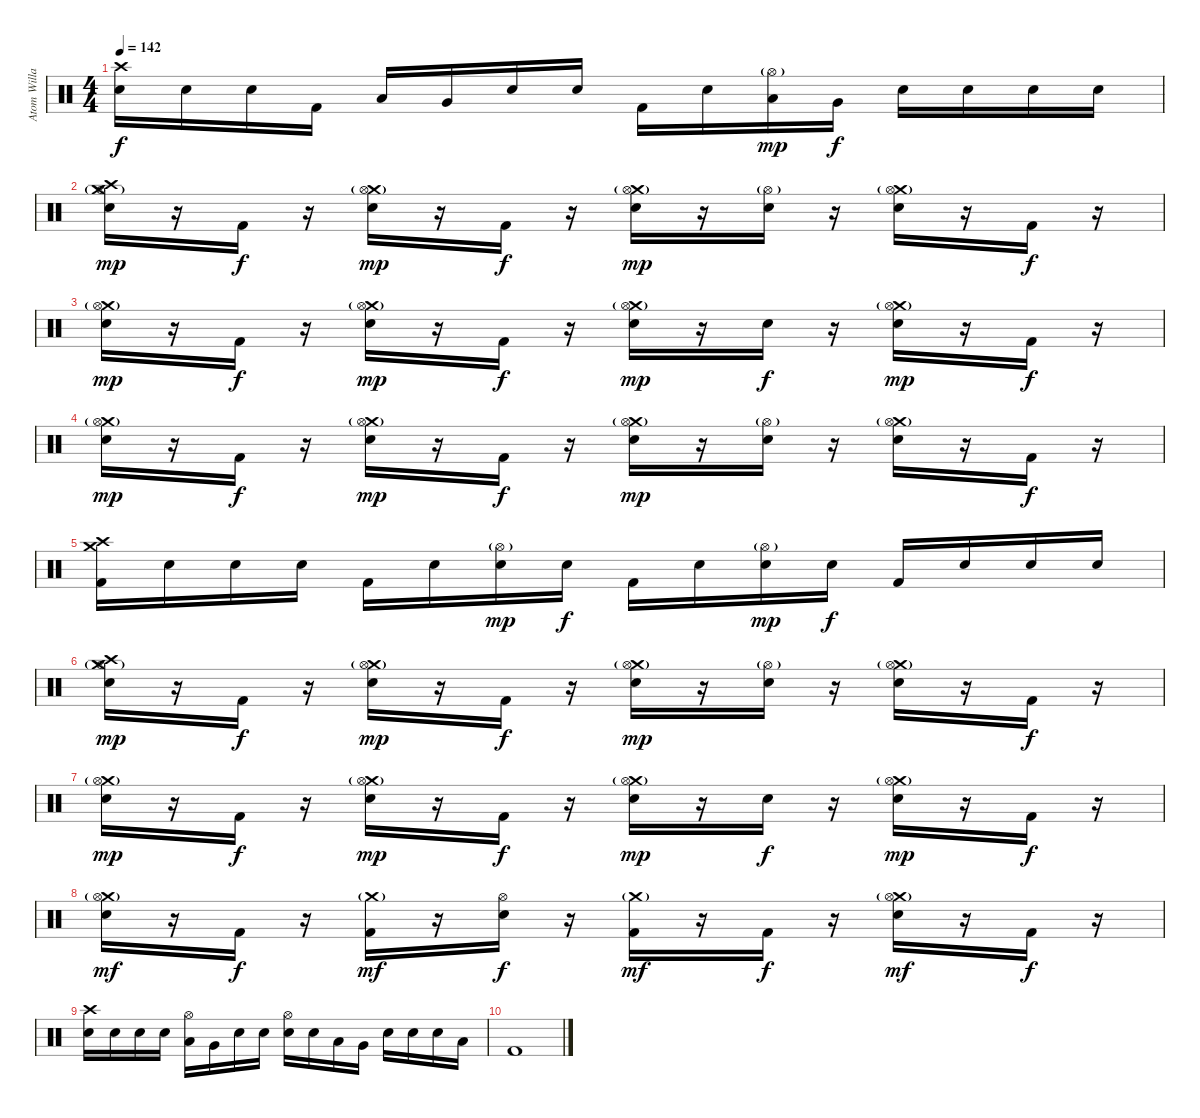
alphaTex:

\track ("Atom Willard" "Atom Willa") {instrument percussion}
\staff {score}
\articulation defaults
\ts (4 4)
\tempo 142
\clef neutral
\ks c
("Crash high (hit)" "Electric Snare (hit)").16{dy f} "Electric Snare (hit)".16 "Electric Snare (hit)".16 "Kick (hit) 2".16 "Low Tom (hit)".16 "Very Low Tom (hit)".16 "Electric Snare (hit)".16 "Electric Snare (hit)".16 "Kick (hit) 2".16 "Electric Snare (hit)".16 ("Hi-Hat (open)"{g} "Low Tom (hit)").16{dy mp} "Very Low Tom (hit)".16{dy f} "Electric Snare (hit)".16 "Electric Snare (hit)".16 "Electric Snare (hit)".16 "Electric Snare (hit)".16 |
("Crash high (hit)" "Crash medium (hit)" "Hi-Hat (open)"{g} "Electric Snare (hit)").16{dy mp} r.16 "Kick (hit) 2".16{dy f} r.16 ("Crash medium (hit)" "Hi-Hat (open)"{g} "Electric Snare (hit)").16{dy mp} r.16 "Kick (hit) 2".16{dy f} r.16 ("Crash medium (hit)" "Hi-Hat (open)"{g} "Electric Snare (hit)").16{dy mp} r.16 ("Hi-Hat (open)"{g} "Electric Snare (hit)").16 r.16 ("Crash medium (hit)" "Hi-Hat (open)"{g} "Electric Snare (hit)").16 r.16 "Kick (hit) 2".16{dy f} r.16 |
("Crash medium (hit)" "Hi-Hat (open)"{g} "Electric Snare (hit)").16{dy mp} r.16 "Kick (hit) 2".16{dy f} r.16 ("Crash medium (hit)" "Hi-Hat (open)"{g} "Electric Snare (hit)").16{dy mp} r.16 "Kick (hit) 2".16{dy f} r.16 ("Crash medium (hit)" "Hi-Hat (open)"{g} "Electric Snare (hit)").16{dy mp} r.16 "Electric Snare (hit)".16{dy f} r.16 ("Crash medium (hit)" "Hi-Hat (open)"{g} "Electric Snare (hit)").16{dy mp} r.16 "Kick (hit) 2".16{dy f} r.16 |
("Crash medium (hit)" "Hi-Hat (open)"{g} "Electric Snare (hit)").16{dy mp} r.16 "Kick (hit) 2".16{dy f} r.16 ("Crash medium (hit)" "Hi-Hat (open)"{g} "Electric Snare (hit)").16{dy mp} r.16 "Kick (hit) 2".16{dy f} r.16 ("Crash medium (hit)" "Hi-Hat (open)"{g} "Electric Snare (hit)").16{dy mp} r.16 ("Hi-Hat (open)"{g} "Electric Snare (hit)").16 r.16 ("Crash medium (hit)" "Hi-Hat (open)"{g} "Electric Snare (hit)").16 r.16 "Kick (hit) 2".16{dy f} r.16 |
("Crash high (hit)" "Crash medium (hit)" "Kick (hit) 2").16 "Electric Snare (hit)".16 "Electric Snare (hit)".16 "Electric Snare (hit)".16 "Kick (hit) 2".16 "Electric Snare (hit)".16 ("Hi-Hat (open)"{g} "Electric Snare (hit)").16{dy mp} "Electric Snare (hit)".16{dy f} "Kick (hit) 2".16 "Electric Snare (hit)".16 ("Hi-Hat (open)"{g} "Electric Snare (hit)").16{dy mp} "Electric Snare (hit)".16{dy f} "Kick (hit) 2".16 "Electric Snare (hit)".16 "Electric Snare (hit)".16 "Electric Snare (hit)".16 |
("Crash high (hit)" "Crash medium (hit)" "Hi-Hat (open)"{g} "Electric Snare (hit)").16{dy mp} r.16 "Kick (hit) 2".16{dy f} r.16 ("Crash medium (hit)" "Hi-Hat (open)"{g} "Electric Snare (hit)").16{dy mp} r.16 "Kick (hit) 2".16{dy f} r.16 ("Crash medium (hit)" "Hi-Hat (open)"{g} "Electric Snare (hit)").16{dy mp} r.16 ("Hi-Hat (open)"{g} "Electric Snare (hit)").16 r.16 ("Crash medium (hit)" "Hi-Hat (open)"{g} "Electric Snare (hit)").16 r.16 "Kick (hit) 2".16{dy f} r.16 |
("Crash medium (hit)" "Hi-Hat (open)"{g} "Electric Snare (hit)").16{dy mp} r.16 "Kick (hit) 2".16{dy f} r.16 ("Crash medium (hit)" "Hi-Hat (open)"{g} "Electric Snare (hit)").16{dy mp} r.16 "Kick (hit) 2".16{dy f} r.16 ("Crash medium (hit)" "Hi-Hat (open)"{g} "Electric Snare (hit)").16{dy mp} r.16 "Electric Snare (hit)".16{dy f} r.16 ("Crash medium (hit)" "Hi-Hat (open)"{g} "Electric Snare (hit)").16{dy mp} r.16 "Kick (hit) 2".16{dy f} r.16 |
("Crash medium (hit)"{g} "Hi-Hat (open)" "Electric Snare (hit)").16{dy mf} r.16 "Kick (hit) 2".16{dy f} r.16 ("Crash medium (hit)"{g} "Kick (hit) 2").16{dy mf} r.16 ("Hi-Hat (open)" "Electric Snare (hit)").16{dy f} r.16 ("Crash medium (hit)"{g} "Kick (hit) 2").16{dy mf} r.16 "Kick (hit) 2".16{dy f} r.16 ("Crash medium (hit)"{g} "Hi-Hat (open)" "Electric Snare (hit)").16{dy mf} r.16 "Kick (hit) 2".16{dy f} r.16 |
("Crash high (hit)" "Electric Snare (hit)").16 "Electric Snare (hit)".16 "Electric Snare (hit)".16 "Electric Snare (hit)".16 ("Hi-Hat (open)" "Low Tom (hit)").16 "Very Low Tom (hit)".16 "Electric Snare (hit)".16 "Electric Snare (hit)".16 ("Hi-Hat (open)" "Electric Snare (hit)").16 "Electric Snare (hit)".16 "Low Tom (hit)".16 "Very Low Tom (hit)".16 "Electric Snare (hit)".16 "Electric Snare (hit)".16 "Electric Snare (hit)".16 "Low Tom (hit)".16 |
"Kick (hit) 2".1
